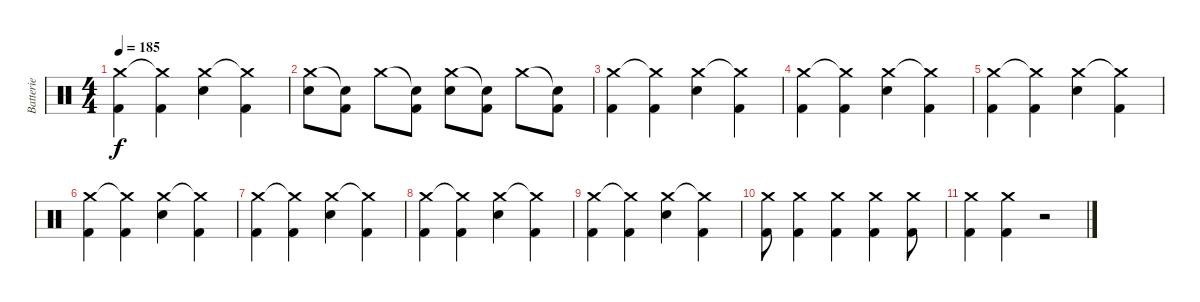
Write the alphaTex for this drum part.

\track ("Batterie" "Batterie") {instrument percussion}
\staff {score}
\articulation defaults
\ts (4 4)
\tempo 185
\clef neutral
\ks c
("Crash medium (hit)" "Kick (hit) 2").4{dy f} ("Crash medium (hit)"{t} "Kick (hit) 2").4 ("Crash medium (hit)" "Electric Snare (hit)").4 ("Crash medium (hit)"{t} "Kick (hit) 2").4 |
("Crash medium (hit)" "Electric Snare (hit)").8 ("Snare (hit)"{t} "Kick (hit) 2").8 "Crash medium (hit)".8 ("Snare (hit)"{t} "Kick (hit) 2").8 ("Crash medium (hit)" "Electric Snare (hit)").8 ("Snare (hit)"{t} "Kick (hit) 2").8 "Crash medium (hit)".8 ("Snare (hit)"{t} "Kick (hit) 2").8 |
("Crash medium (hit)" "Kick (hit) 2").4 ("Crash medium (hit)"{t} "Kick (hit) 2").4 ("Crash medium (hit)" "Electric Snare (hit)").4 ("Crash medium (hit)"{t} "Kick (hit) 2").4 |
("Crash medium (hit)" "Kick (hit) 2").4 ("Crash medium (hit)"{t} "Kick (hit) 2").4 ("Crash medium (hit)" "Electric Snare (hit)").4 ("Crash medium (hit)"{t} "Kick (hit) 2").4 |
("Crash medium (hit)" "Kick (hit) 2").4 ("Crash medium (hit)"{t} "Kick (hit) 2").4 ("Crash medium (hit)" "Electric Snare (hit)").4 ("Crash medium (hit)"{t} "Kick (hit) 2").4 |
("Crash medium (hit)" "Kick (hit) 2").4 ("Crash medium (hit)"{t} "Kick (hit) 2").4 ("Crash medium (hit)" "Electric Snare (hit)").4 ("Crash medium (hit)"{t} "Kick (hit) 2").4 |
("Crash medium (hit)" "Kick (hit) 2").4 ("Crash medium (hit)"{t} "Kick (hit) 2").4 ("Crash medium (hit)" "Electric Snare (hit)").4 ("Crash medium (hit)"{t} "Kick (hit) 2").4 |
("Crash medium (hit)" "Kick (hit) 2").4 ("Crash medium (hit)"{t} "Kick (hit) 2").4 ("Crash medium (hit)" "Electric Snare (hit)").4 ("Crash medium (hit)"{t} "Kick (hit) 2").4 |
("Crash medium (hit)" "Kick (hit) 2").4 ("Crash medium (hit)"{t} "Kick (hit) 2").4 ("Crash medium (hit)" "Electric Snare (hit)").4 ("Crash medium (hit)"{t} "Kick (hit) 2").4 |
("Crash medium (hit)" "Kick (hit) 2").8 ("Crash medium (hit)" "Kick (hit) 2").4 ("Crash medium (hit)" "Kick (hit) 2").4 ("Crash medium (hit)" "Kick (hit) 2").4 ("Crash medium (hit)" "Kick (hit) 2").8 |
("Crash medium (hit)" "Kick (hit) 2").4 ("Crash medium (hit)" "Kick (hit) 2").4 r.2
